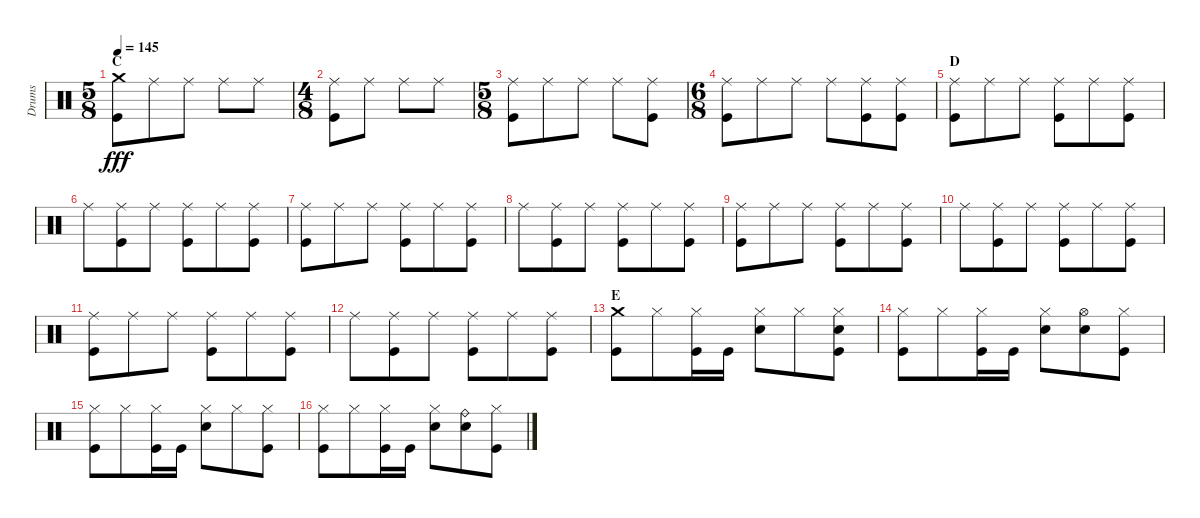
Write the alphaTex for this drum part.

\track ("Drums" "Drums") {instrument percussion}
\staff {score}
\articulation defaults
\ts (5 8)
\section ("" "C")
\tempo 145
\clef neutral
\ks c
("Crash medium (hit)" "Kick (hit)").8{dy fff} "Ride (middle)".8 "Ride (middle)".8 "Ride (middle)".8 "Ride (middle)".8 |
\ts (4 8)
("Ride (middle)" "Kick (hit)").8 "Ride (middle)".8 "Ride (middle)".8 "Ride (middle)".8 |
\ts (5 8)
("Ride (middle)" "Kick (hit)").8 "Ride (middle)".8 "Ride (middle)".8 "Ride (middle)".8 ("Ride (middle)" "Kick (hit)").8 |
\ts (6 8)
("Ride (middle)" "Kick (hit)").8 "Ride (middle)".8 "Ride (middle)".8 "Ride (middle)".8 ("Ride (middle)" "Kick (hit)").8 ("Ride (middle)" "Kick (hit)").8 |
\section ("" "D")
("Ride (middle)" "Kick (hit)").8 "Ride (middle)".8 "Ride (middle)".8 ("Ride (middle)" "Kick (hit)").8 "Ride (middle)".8 ("Ride (middle)" "Kick (hit)").8 |
"Ride (middle)".8 ("Ride (middle)" "Kick (hit)").8 "Ride (middle)".8 ("Ride (middle)" "Kick (hit)").8 "Ride (middle)".8 ("Ride (middle)" "Kick (hit)").8 |
("Ride (middle)" "Kick (hit)").8 "Ride (middle)".8 "Ride (middle)".8 ("Ride (middle)" "Kick (hit)").8 "Ride (middle)".8 ("Ride (middle)" "Kick (hit)").8 |
"Ride (middle)".8 ("Ride (middle)" "Kick (hit)").8 "Ride (middle)".8 ("Ride (middle)" "Kick (hit)").8 "Ride (middle)".8 ("Ride (middle)" "Kick (hit)").8 |
("Ride (middle)" "Kick (hit)").8 "Ride (middle)".8 "Ride (middle)".8 ("Ride (middle)" "Kick (hit)").8 "Ride (middle)".8 ("Ride (middle)" "Kick (hit)").8 |
"Ride (middle)".8 ("Ride (middle)" "Kick (hit)").8 "Ride (middle)".8 ("Ride (middle)" "Kick (hit)").8 "Ride (middle)".8 ("Ride (middle)" "Kick (hit)").8 |
("Ride (middle)" "Kick (hit)").8 "Ride (middle)".8 "Ride (middle)".8 ("Ride (middle)" "Kick (hit)").8 "Ride (middle)".8 ("Ride (middle)" "Kick (hit)").8 |
"Ride (middle)".8 ("Ride (middle)" "Kick (hit)").8 "Ride (middle)".8 ("Ride (middle)" "Kick (hit)").8 "Ride (middle)".8 ("Ride (middle)" "Kick (hit)").8 |
\section ("" "E")
("Crash medium (hit)" "Kick (hit)").8 "Hi-Hat (closed)".8 ("Hi-Hat (closed)" "Kick (hit)").16 "Kick (hit)".16 ("Hi-Hat (closed)" "Snare (hit) 2").8 "Hi-Hat (closed)".8 ("Hi-Hat (closed)" "Snare (hit) 2" "Kick (hit)").8 |
("Hi-Hat (closed)" "Kick (hit)").8 "Hi-Hat (closed)".8 ("Hi-Hat (closed)" "Kick (hit)").16 "Kick (hit)".16 ("Hi-Hat (closed)" "Snare (hit) 2").8 ("Hi-Hat (open)" "Snare (hit) 2").8 ("Hi-Hat (closed)" "Kick (hit)").8 |
("Hi-Hat (closed)" "Kick (hit)").8 "Hi-Hat (closed)".8 ("Hi-Hat (closed)" "Kick (hit)").16 "Kick (hit)".16 ("Hi-Hat (closed)" "Snare (hit) 2").8 "Hi-Hat (closed)".8 ("Hi-Hat (closed)" "Kick (hit)").8 |
("Hi-Hat (closed)" "Kick (hit)").8 "Hi-Hat (closed)".8 ("Hi-Hat (closed)" "Kick (hit)").16 "Kick (hit)".16 ("Hi-Hat (closed)" "Snare (hit) 2").8 ("Ride (bell)" "Snare (hit) 2").8 ("Hi-Hat (closed)" "Kick (hit)").8
